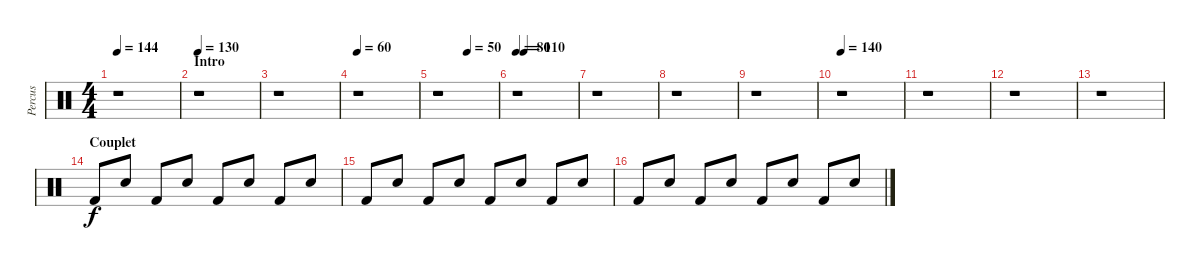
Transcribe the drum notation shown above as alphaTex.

\track ("Percus" "Percus") {instrument percussion}
\staff {score}
\articulation defaults
\ts (4 4)
\tempo 144
\tempo 100
\tempo 144
\clef neutral
\ks c
r.1{dy f} |
\section ("" "Intro")
\tempo 130
r.1 |
r.1 |
\tempo 60
r.1 |
\tempo (50 0.5)
r.1 |
\tempo 80
\tempo (110 0.125)
r.1 |
r.1 |
r.1 |
r.1 |
\tempo 140
r.1 |
r.1 |
r.1 |
r.1 |
\section ("" "Couplet")
"Kick (hit) 2".8 "Snare (hit) 2".8 "Kick (hit) 2".8 "Snare (hit) 2".8 "Kick (hit) 2".8 "Snare (hit) 2".8 "Kick (hit) 2".8 "Snare (hit) 2".8 |
"Kick (hit) 2".8 "Snare (hit) 2".8 "Kick (hit) 2".8 "Snare (hit) 2".8 "Kick (hit) 2".8 "Snare (hit) 2".8 "Kick (hit) 2".8 "Snare (hit) 2".8 |
"Kick (hit) 2".8 "Snare (hit) 2".8 "Kick (hit) 2".8 "Snare (hit) 2".8 "Kick (hit) 2".8 "Snare (hit) 2".8 "Kick (hit) 2".8 "Snare (hit) 2".8
